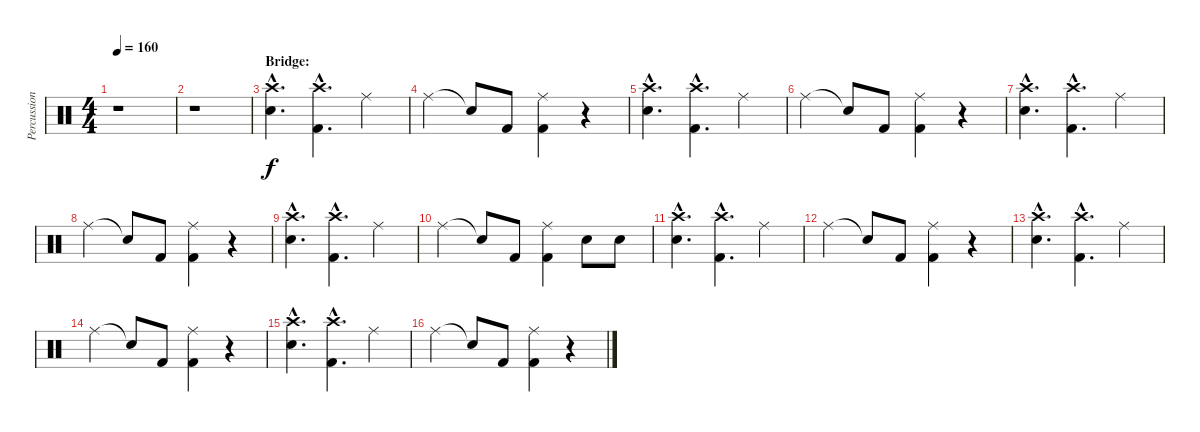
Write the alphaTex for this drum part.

\track ("Percussion" "Percussion") {instrument percussion}
\staff {score}
\articulation defaults
\ts (4 4)
\tempo 160
\clef neutral
\ks c
r.1{dy f} |
r.1 |
\section ("" "Bridge:")
("Crash high (hit)"{hac} "Snare (hit) 2"{hac}).4{d} ("Crash high (hit)"{hac} "Kick (hit) 2"{hac}).4{d} "Ride (middle)".4 |
"Ride (middle)".4 "Snare (hit)"{t}.8 "Kick (hit) 2".8 ("Ride (middle)" "Kick (hit) 2").4 r.4 |
("Crash high (hit)"{hac} "Snare (hit) 2"{hac}).4{d} ("Crash high (hit)"{hac} "Kick (hit) 2"{hac}).4{d} "Ride (middle)".4 |
"Ride (middle)".4 "Snare (hit)"{t}.8 "Kick (hit) 2".8 ("Ride (middle)" "Kick (hit) 2").4 r.4 |
("Crash high (hit)"{hac} "Snare (hit) 2"{hac}).4{d} ("Crash high (hit)"{hac} "Kick (hit) 2"{hac}).4{d} "Ride (middle)".4 |
"Ride (middle)".4 "Snare (hit)"{t}.8 "Kick (hit) 2".8 ("Ride (middle)" "Kick (hit) 2").4 r.4 |
("Crash high (hit)"{hac} "Snare (hit) 2"{hac}).4{d} ("Crash high (hit)"{hac} "Kick (hit) 2"{hac}).4{d} "Ride (middle)".4 |
"Ride (middle)".4 "Snare (hit)"{t}.8 "Kick (hit) 2".8 ("Ride (middle)" "Kick (hit) 2").4 "Snare (hit) 2".8 "Snare (hit) 2".8 |
("Crash high (hit)"{hac} "Snare (hit) 2"{hac}).4{d} ("Crash high (hit)"{hac} "Kick (hit) 2"{hac}).4{d} "Ride (middle)".4 |
"Ride (middle)".4 "Snare (hit)"{t}.8 "Kick (hit) 2".8 ("Ride (middle)" "Kick (hit) 2").4 r.4 |
("Crash high (hit)"{hac} "Snare (hit) 2"{hac}).4{d} ("Crash high (hit)"{hac} "Kick (hit) 2"{hac}).4{d} "Ride (middle)".4 |
"Ride (middle)".4 "Snare (hit)"{t}.8 "Kick (hit) 2".8 ("Ride (middle)" "Kick (hit) 2").4 r.4 |
("Crash high (hit)"{hac} "Snare (hit) 2"{hac}).4{d} ("Crash high (hit)"{hac} "Kick (hit) 2"{hac}).4{d} "Ride (middle)".4 |
"Ride (middle)".4 "Snare (hit)"{t}.8 "Kick (hit) 2".8 ("Ride (middle)" "Kick (hit) 2").4 r.4
